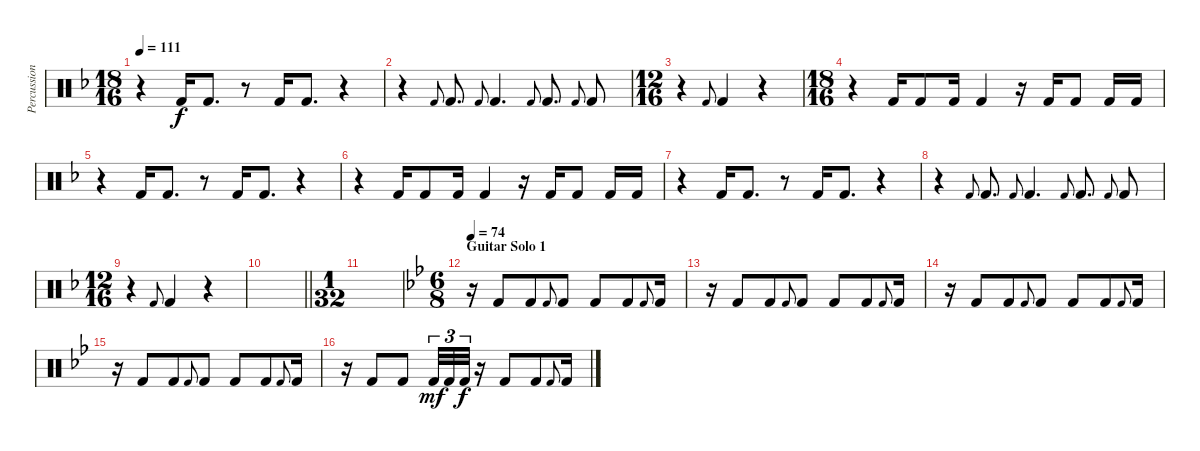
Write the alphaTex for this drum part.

\track ("Percussion" "Percussion") {instrument percussion}
\staff {score}
\articulation defaults
\ts (18 16)
\tempo 111
\clef neutral
\ks f
r.4{dy f} "Kick (hit) 2".16 "Kick (hit) 2".8{d} r.8 "Kick (hit) 2".16 "Kick (hit) 2".8{d} r.4 |
r.4 "Kick (hit) 2".8{gr onbeat} "Kick (hit) 2".8{d} "Kick (hit) 2".8{gr onbeat} "Kick (hit) 2".4{d} "Kick (hit) 2".8{gr onbeat} "Kick (hit) 2".8{d} "Kick (hit) 2".8{gr onbeat} "Kick (hit) 2".8 |
\ts (12 16)
r.4 "Kick (hit) 2".8{gr onbeat} "Kick (hit) 2".4 r.4 |
\ts (18 16)
r.4 "Kick (hit) 2".16 "Kick (hit) 2".8 "Kick (hit) 2".16 "Kick (hit) 2".4 r.16 "Kick (hit) 2".16 "Kick (hit) 2".8 "Kick (hit) 2".16 "Kick (hit) 2".16 |
r.4 "Kick (hit) 2".16 "Kick (hit) 2".8{d} r.8 "Kick (hit) 2".16 "Kick (hit) 2".8{d} r.4 |
r.4 "Kick (hit) 2".16 "Kick (hit) 2".8 "Kick (hit) 2".16 "Kick (hit) 2".4 r.16 "Kick (hit) 2".16 "Kick (hit) 2".8 "Kick (hit) 2".16 "Kick (hit) 2".16 |
r.4 "Kick (hit) 2".16 "Kick (hit) 2".8{d} r.8 "Kick (hit) 2".16 "Kick (hit) 2".8{d} r.4 |
r.4 "Kick (hit) 2".8{gr onbeat} "Kick (hit) 2".8{d} "Kick (hit) 2".8{gr onbeat} "Kick (hit) 2".4{d} "Kick (hit) 2".8{gr onbeat} "Kick (hit) 2".8{d} "Kick (hit) 2".8{gr onbeat} "Kick (hit) 2".8 |
\ts (12 16)
r.4 "Kick (hit) 2".8{gr onbeat} "Kick (hit) 2".4 r.4 |
\barLineRight lightlight
|
\ts (1 32)
|
\ts (6 8)
\section ("" "Guitar Solo 1")
\tempo 74
\ks bb
r.16 "Kick (hit) 2".8 "Kick (hit) 2".8 "Kick (hit) 2".8{gr onbeat} "Kick (hit) 2".8 "Kick (hit) 2".8 "Kick (hit) 2".8 "Kick (hit) 2".8{gr onbeat} "Kick (hit) 2".16 |
r.16 "Kick (hit) 2".8 "Kick (hit) 2".8 "Kick (hit) 2".8{gr onbeat} "Kick (hit) 2".8 "Kick (hit) 2".8 "Kick (hit) 2".8 "Kick (hit) 2".8{gr onbeat} "Kick (hit) 2".16 |
r.16 "Kick (hit) 2".8 "Kick (hit) 2".8 "Kick (hit) 2".8{gr onbeat} "Kick (hit) 2".8 "Kick (hit) 2".8 "Kick (hit) 2".8 "Kick (hit) 2".8{gr onbeat} "Kick (hit) 2".16 |
r.16 "Kick (hit) 2".8 "Kick (hit) 2".8 "Kick (hit) 2".8{gr onbeat} "Kick (hit) 2".8 "Kick (hit) 2".8 "Kick (hit) 2".8 "Kick (hit) 2".8{gr onbeat} "Kick (hit) 2".16 |
r.16 "Kick (hit) 2".8 "Kick (hit) 2".8 "Kick (hit) 2".32{tu (3 2) dy mf} "Kick (hit) 2".32{tu (3 2)} "Kick (hit) 2".32{tu (3 2) dy f} r.16 "Kick (hit) 2".8 "Kick (hit) 2".8 "Kick (hit) 2".8{gr onbeat} "Kick (hit) 2".16
